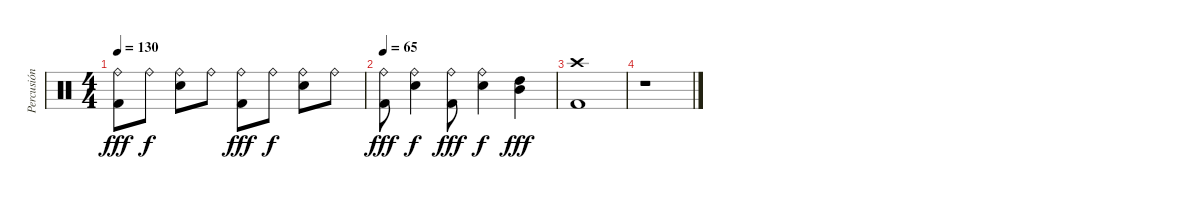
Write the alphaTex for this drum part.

\track ("Percusión" "Percusión") {instrument percussion}
\staff {score}
\articulation defaults
\ts (4 4)
\tempo 130
\clef neutral
\ks c
("Ride (bell)" "Kick (hit) 2").8{dy fff} "Ride (bell)".8{dy f} ("Ride (bell)" "Snare (hit) 2").8 "Ride (bell)".8 ("Ride (bell)" "Kick (hit) 2").8{dy fff} "Ride (bell)".8{dy f} ("Ride (bell)" "Snare (hit) 2").8 "Ride (bell)".8 |
\tempo 65
("Ride (bell)" "Kick (hit) 2").8{dy fff} ("Ride (bell)" "Snare (hit) 2").4{dy f} ("Ride (bell)" "Kick (hit) 2").8{dy fff} ("Ride (bell)" "Snare (hit) 2").4{dy f} ("Mid Tom (hit)" "High Tom (hit)").4{dy fff} |
("Crash high (hit)" "Kick (hit) 2").1 |
r.1
